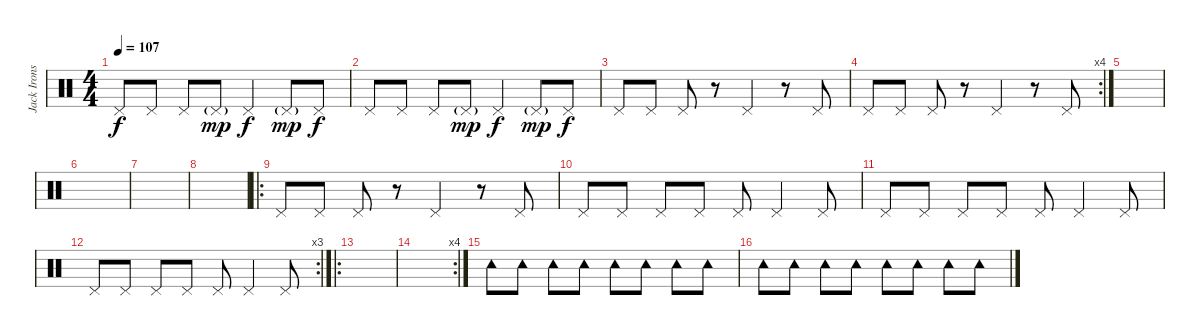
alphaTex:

\track ("Jack Irons" "Jack Irons") {instrument percussion}
\staff {score}
\articulation defaults
\ts (4 4)
\tempo 107
\clef neutral
\ks c "Pedal Hi-Hat (hit)".8{dy f} "Pedal Hi-Hat (hit)".8 "Pedal Hi-Hat (hit)".8 "Pedal Hi-Hat (hit)"{g}.8{dy mp} "Pedal Hi-Hat (hit)".4{dy f} "Pedal Hi-Hat (hit)"{g}.8{dy mp} "Pedal Hi-Hat (hit)".8{dy f}
|
"Pedal Hi-Hat (hit)".8 "Pedal Hi-Hat (hit)".8 "Pedal Hi-Hat (hit)".8 "Pedal Hi-Hat (hit)"{g}.8{dy mp} "Pedal Hi-Hat (hit)".4{dy f} "Pedal Hi-Hat (hit)"{g}.8{dy mp} "Pedal Hi-Hat (hit)".8{dy f} |
"Pedal Hi-Hat (hit)".8 "Pedal Hi-Hat (hit)".8 "Pedal Hi-Hat (hit)".8 r.8 "Pedal Hi-Hat (hit)".4 r.8 "Pedal Hi-Hat (hit)".8 |
\rc 4 "Pedal Hi-Hat (hit)".8 "Pedal Hi-Hat (hit)".8 "Pedal Hi-Hat (hit)".8
r.8 "Pedal Hi-Hat (hit)".4 r.8 "Pedal Hi-Hat (hit)".8 |
|
|
|
|
\ro "Pedal Hi-Hat (hit)".8 "Pedal Hi-Hat (hit)".8 "Pedal Hi-Hat (hit)".8
r.8 "Pedal Hi-Hat (hit)".4 r.8 "Pedal Hi-Hat (hit)".8 |
"Pedal Hi-Hat (hit)".8 "Pedal Hi-Hat (hit)".8 "Pedal Hi-Hat (hit)".8 "Pedal Hi-Hat (hit)".8 "Pedal Hi-Hat (hit)".8 "Pedal Hi-Hat (hit)".4 "Pedal Hi-Hat (hit)".8 |
"Pedal Hi-Hat (hit)".8 "Pedal Hi-Hat (hit)".8 "Pedal Hi-Hat (hit)".8 "Pedal Hi-Hat (hit)".8 "Pedal Hi-Hat (hit)".8 "Pedal Hi-Hat (hit)".4 "Pedal Hi-Hat (hit)".8 |
\rc 3 "Pedal Hi-Hat (hit)".8 "Pedal Hi-Hat (hit)".8 "Pedal Hi-Hat (hit)".8 "Pedal Hi-Hat (hit)".8 "Pedal Hi-Hat (hit)".8 "Pedal Hi-Hat (hit)".4 "Pedal Hi-Hat (hit)".8
|
\ro
|
\rc 4
|
"Tambourine (hit)".8 "Tambourine (hit)".8 "Tambourine (hit)".8 "Tambourine (hit)".8 "Tambourine (hit)".8 "Tambourine (hit)".8 "Tambourine (hit)".8 "Tambourine (hit)".8 |
"Tambourine (hit)".8 "Tambourine (hit)".8 "Tambourine (hit)".8 "Tambourine (hit)".8 "Tambourine (hit)".8 "Tambourine (hit)".8 "Tambourine (hit)".8 "Tambourine (hit)".8
